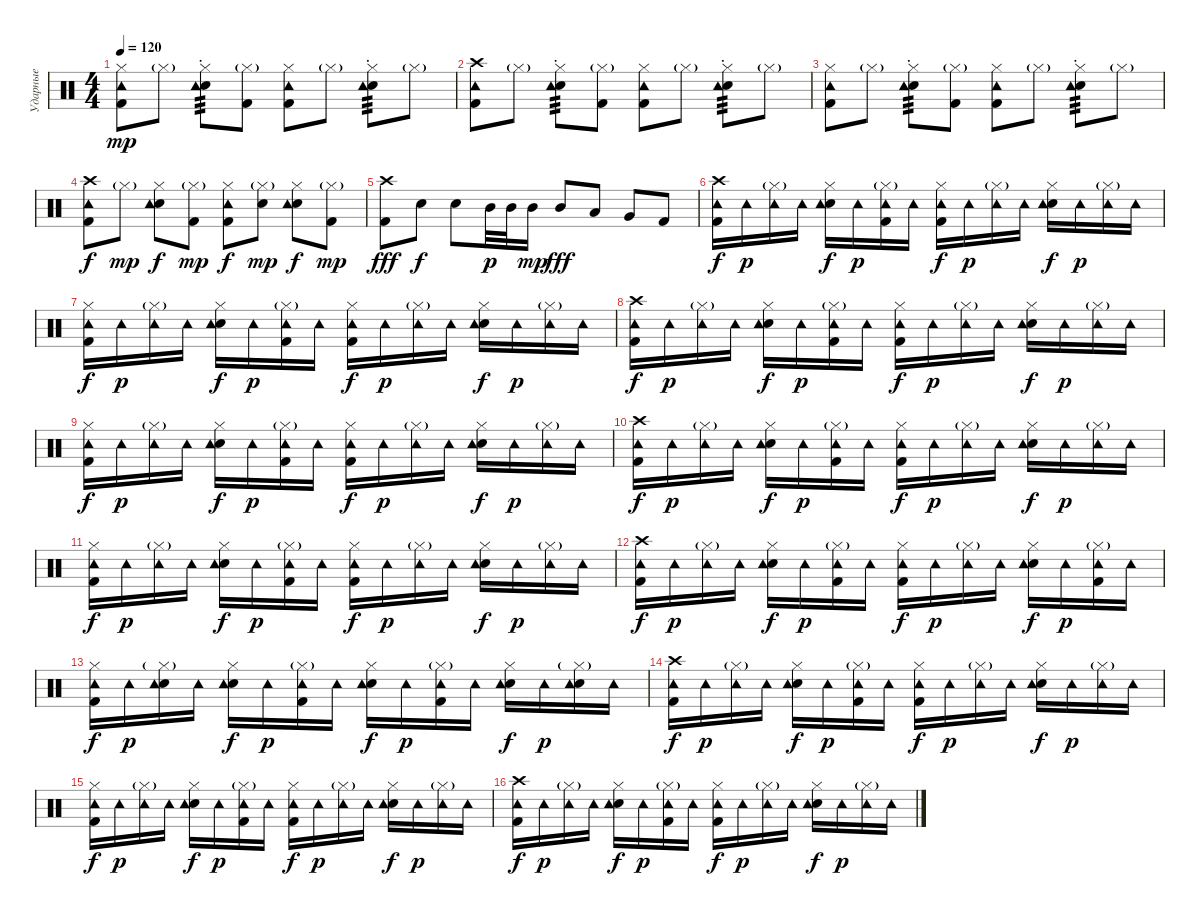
\track ("Ударные" "Ударные") {instrument percussion}
\staff {score}
\articulation defaults
\ts (4 4)
\tempo 120
\clef neutral
\ks c
("Kick (hit) 2" "Hi-Hat (closed)" "Tambourine (hit)").8{dy mp} "Hi-Hat (closed)"{g}.8 ("Electric Snare (hit)" "Hi-Hat (closed)" "Tambourine (hit)"{st}).8{tp 3} ("Kick (hit) 2" "Hi-Hat (closed)"{g}).8 ("Kick (hit) 2" "Hi-Hat (closed)" "Tambourine (hit)").8 "Hi-Hat (closed)"{g}.8 ("Electric Snare (hit)" "Hi-Hat (closed)" "Tambourine (hit)"{st}).8{tp 3} "Hi-Hat (closed)"{g}.8 |
("Kick (hit) 2" "Crash high (hit)" "Tambourine (hit)").8 "Hi-Hat (closed)"{g}.8 ("Electric Snare (hit)" "Hi-Hat (closed)" "Tambourine (hit)"{st}).8{tp 3} ("Kick (hit) 2" "Hi-Hat (closed)"{g}).8 ("Kick (hit) 2" "Hi-Hat (closed)" "Tambourine (hit)").8 "Hi-Hat (closed)"{g}.8 ("Electric Snare (hit)" "Hi-Hat (closed)" "Tambourine (hit)"{st}).8{tp 3} "Hi-Hat (closed)"{g}.8 |
("Kick (hit) 2" "Hi-Hat (closed)" "Tambourine (hit)").8 "Hi-Hat (closed)"{g}.8 ("Electric Snare (hit)" "Hi-Hat (closed)" "Tambourine (hit)"{st}).8{tp 3} ("Kick (hit) 2" "Hi-Hat (closed)"{g}).8 ("Kick (hit) 2" "Hi-Hat (closed)" "Tambourine (hit)").8 "Hi-Hat (closed)"{g}.8 ("Electric Snare (hit)" "Hi-Hat (closed)" "Tambourine (hit)"{st}).8{tp 3} "Hi-Hat (closed)"{g}.8 |
("Kick (hit) 2" "Crash high (hit)" "Tambourine (hit)").8{dy f} "Hi-Hat (closed)"{g}.8{dy mp} ("Electric Snare (hit)" "Hi-Hat (closed)" "Tambourine (hit)").8{dy f} ("Kick (hit) 2" "Hi-Hat (closed)"{g}).8{dy mp} ("Kick (hit) 2" "Hi-Hat (closed)" "Tambourine (hit)").8{dy f} ("Electric Snare (hit)" "Hi-Hat (closed)"{g}).8{dy mp} ("Electric Snare (hit)" "Hi-Hat (closed)" "Tambourine (hit)").8{dy f} ("Kick (hit) 2" "Hi-Hat (closed)"{g}).8{dy mp} |
("Kick (hit) 2" "Crash high (hit)").8{dy fff} "Electric Snare (hit)".8{dy f} "Electric Snare (hit)".8 "Mid Tom (hit)".32{dy p} "Mid Tom (hit)".32 "Mid Tom (hit)".16{dy mp} "Mid Tom (hit)".8{dy fff} "Low Tom (hit)".8 "Very Low Tom (hit)".8 "Kick (hit) 2".8 |
("Kick (hit) 2" "Crash high (hit)" "Tambourine (hit)").16{dy f} "Tambourine (hit)".16{dy p} ("Hi-Hat (closed)"{g} "Tambourine (hit)").16 "Tambourine (hit)".16 ("Electric Snare (hit)" "Hi-Hat (closed)" "Tambourine (hit)").16{dy f} "Tambourine (hit)".16{dy p} ("Kick (hit) 2" "Hi-Hat (closed)"{g} "Tambourine (hit)").16 "Tambourine (hit)".16 ("Kick (hit) 2" "Hi-Hat (closed)" "Tambourine (hit)").16{dy f} "Tambourine (hit)".16{dy p} ("Hi-Hat (closed)"{g} "Tambourine (hit)").16 "Tambourine (hit)".16 ("Electric Snare (hit)" "Hi-Hat (closed)" "Tambourine (hit)").16{dy f} "Tambourine (hit)".16{dy p} ("Hi-Hat (closed)"{g} "Tambourine (hit)").16 "Tambourine (hit)".16 |
("Kick (hit) 2" "Hi-Hat (closed)" "Tambourine (hit)").16{dy f} "Tambourine (hit)".16{dy p} ("Hi-Hat (closed)"{g} "Tambourine (hit)").16 "Tambourine (hit)".16 ("Electric Snare (hit)" "Hi-Hat (closed)" "Tambourine (hit)").16{dy f} "Tambourine (hit)".16{dy p} ("Kick (hit) 2" "Hi-Hat (closed)"{g} "Tambourine (hit)").16 "Tambourine (hit)".16 ("Kick (hit) 2" "Hi-Hat (closed)" "Tambourine (hit)").16{dy f} "Tambourine (hit)".16{dy p} ("Hi-Hat (closed)"{g} "Tambourine (hit)").16 "Tambourine (hit)".16 ("Electric Snare (hit)" "Hi-Hat (closed)" "Tambourine (hit)").16{dy f} "Tambourine (hit)".16{dy p} ("Hi-Hat (closed)"{g} "Tambourine (hit)").16 "Tambourine (hit)".16 |
("Kick (hit) 2" "Crash high (hit)" "Tambourine (hit)").16{dy f} "Tambourine (hit)".16{dy p} ("Hi-Hat (closed)"{g} "Tambourine (hit)").16 "Tambourine (hit)".16 ("Electric Snare (hit)" "Hi-Hat (closed)" "Tambourine (hit)").16{dy f} "Tambourine (hit)".16{dy p} ("Kick (hit) 2" "Hi-Hat (closed)"{g} "Tambourine (hit)").16 "Tambourine (hit)".16 ("Kick (hit) 2" "Hi-Hat (closed)" "Tambourine (hit)").16{dy f} "Tambourine (hit)".16{dy p} ("Hi-Hat (closed)"{g} "Tambourine (hit)").16 "Tambourine (hit)".16 ("Electric Snare (hit)" "Hi-Hat (closed)" "Tambourine (hit)").16{dy f} "Tambourine (hit)".16{dy p} ("Hi-Hat (closed)"{g} "Tambourine (hit)").16 "Tambourine (hit)".16 |
("Kick (hit) 2" "Hi-Hat (closed)" "Tambourine (hit)").16{dy f} "Tambourine (hit)".16{dy p} ("Hi-Hat (closed)"{g} "Tambourine (hit)").16 "Tambourine (hit)".16 ("Electric Snare (hit)" "Hi-Hat (closed)" "Tambourine (hit)").16{dy f} "Tambourine (hit)".16{dy p} ("Kick (hit) 2" "Hi-Hat (closed)"{g} "Tambourine (hit)").16 "Tambourine (hit)".16 ("Kick (hit) 2" "Hi-Hat (closed)" "Tambourine (hit)").16{dy f} "Tambourine (hit)".16{dy p} ("Hi-Hat (closed)"{g} "Tambourine (hit)").16 "Tambourine (hit)".16 ("Electric Snare (hit)" "Hi-Hat (closed)" "Tambourine (hit)").16{dy f} "Tambourine (hit)".16{dy p} ("Hi-Hat (closed)"{g} "Tambourine (hit)").16 "Tambourine (hit)".16 |
("Kick (hit) 2" "Crash high (hit)" "Tambourine (hit)").16{dy f} "Tambourine (hit)".16{dy p} ("Hi-Hat (closed)"{g} "Tambourine (hit)").16 "Tambourine (hit)".16 ("Electric Snare (hit)" "Hi-Hat (closed)" "Tambourine (hit)").16{dy f} "Tambourine (hit)".16{dy p} ("Kick (hit) 2" "Hi-Hat (closed)"{g} "Tambourine (hit)").16 "Tambourine (hit)".16 ("Kick (hit) 2" "Hi-Hat (closed)" "Tambourine (hit)").16{dy f} "Tambourine (hit)".16{dy p} ("Hi-Hat (closed)"{g} "Tambourine (hit)").16 "Tambourine (hit)".16 ("Electric Snare (hit)" "Hi-Hat (closed)" "Tambourine (hit)").16{dy f} "Tambourine (hit)".16{dy p} ("Hi-Hat (closed)"{g} "Tambourine (hit)").16 "Tambourine (hit)".16 |
("Kick (hit) 2" "Hi-Hat (closed)" "Tambourine (hit)").16{dy f} "Tambourine (hit)".16{dy p} ("Hi-Hat (closed)"{g} "Tambourine (hit)").16 "Tambourine (hit)".16 ("Electric Snare (hit)" "Hi-Hat (closed)" "Tambourine (hit)").16{dy f} "Tambourine (hit)".16{dy p} ("Kick (hit) 2" "Hi-Hat (closed)"{g} "Tambourine (hit)").16 "Tambourine (hit)".16 ("Kick (hit) 2" "Hi-Hat (closed)" "Tambourine (hit)").16{dy f} "Tambourine (hit)".16{dy p} ("Hi-Hat (closed)"{g} "Tambourine (hit)").16 "Tambourine (hit)".16 ("Electric Snare (hit)" "Hi-Hat (closed)" "Tambourine (hit)").16{dy f} "Tambourine (hit)".16{dy p} ("Hi-Hat (closed)"{g} "Tambourine (hit)").16 "Tambourine (hit)".16 |
("Kick (hit) 2" "Crash high (hit)" "Tambourine (hit)").16{dy f} "Tambourine (hit)".16{dy p} ("Hi-Hat (closed)"{g} "Tambourine (hit)").16 "Tambourine (hit)".16 ("Electric Snare (hit)" "Hi-Hat (closed)" "Tambourine (hit)").16{dy f} "Tambourine (hit)".16{dy p} ("Kick (hit) 2" "Hi-Hat (closed)"{g} "Tambourine (hit)").16 "Tambourine (hit)".16 ("Kick (hit) 2" "Hi-Hat (closed)" "Tambourine (hit)").16{dy f} "Tambourine (hit)".16{dy p} ("Hi-Hat (closed)"{g} "Tambourine (hit)").16 "Tambourine (hit)".16 ("Electric Snare (hit)" "Hi-Hat (closed)" "Tambourine (hit)").16{dy f} "Tambourine (hit)".16{dy p} ("Kick (hit) 2" "Hi-Hat (closed)"{g} "Tambourine (hit)").16 "Tambourine (hit)".16 |
("Kick (hit) 2" "Hi-Hat (closed)" "Tambourine (hit)").16{dy f} "Tambourine (hit)".16{dy p} ("Electric Snare (hit)" "Hi-Hat (closed)"{g} "Tambourine (hit)").16 "Tambourine (hit)".16 ("Electric Snare (hit)" "Hi-Hat (closed)" "Tambourine (hit)").16{dy f} "Tambourine (hit)".16{dy p} ("Kick (hit) 2" "Hi-Hat (closed)"{g} "Tambourine (hit)").16 "Tambourine (hit)".16 ("Electric Snare (hit)" "Hi-Hat (closed)" "Tambourine (hit)").16{dy f} "Tambourine (hit)".16{dy p} ("Kick (hit) 2" "Hi-Hat (closed)"{g} "Tambourine (hit)").16 "Tambourine (hit)".16 ("Electric Snare (hit)" "Hi-Hat (closed)" "Tambourine (hit)").16{dy f} "Tambourine (hit)".16{dy p} ("Electric Snare (hit)" "Hi-Hat (closed)"{g} "Tambourine (hit)").16 "Tambourine (hit)".16 |
("Kick (hit) 2" "Crash high (hit)" "Tambourine (hit)").16{dy f} "Tambourine (hit)".16{dy p} ("Hi-Hat (closed)"{g} "Tambourine (hit)").16 "Tambourine (hit)".16 ("Electric Snare (hit)" "Hi-Hat (closed)" "Tambourine (hit)").16{dy f} "Tambourine (hit)".16{dy p} ("Kick (hit) 2" "Hi-Hat (closed)"{g} "Tambourine (hit)").16 "Tambourine (hit)".16 ("Kick (hit) 2" "Hi-Hat (closed)" "Tambourine (hit)").16{dy f} "Tambourine (hit)".16{dy p} ("Hi-Hat (closed)"{g} "Tambourine (hit)").16 "Tambourine (hit)".16 ("Electric Snare (hit)" "Hi-Hat (closed)" "Tambourine (hit)").16{dy f} "Tambourine (hit)".16{dy p} ("Hi-Hat (closed)"{g} "Tambourine (hit)").16 "Tambourine (hit)".16 |
("Kick (hit) 2" "Hi-Hat (closed)" "Tambourine (hit)").16{dy f} "Tambourine (hit)".16{dy p} ("Hi-Hat (closed)"{g} "Tambourine (hit)").16 "Tambourine (hit)".16 ("Electric Snare (hit)" "Hi-Hat (closed)" "Tambourine (hit)").16{dy f} "Tambourine (hit)".16{dy p} ("Kick (hit) 2" "Hi-Hat (closed)"{g} "Tambourine (hit)").16 "Tambourine (hit)".16 ("Kick (hit) 2" "Hi-Hat (closed)" "Tambourine (hit)").16{dy f} "Tambourine (hit)".16{dy p} ("Hi-Hat (closed)"{g} "Tambourine (hit)").16 "Tambourine (hit)".16 ("Electric Snare (hit)" "Hi-Hat (closed)" "Tambourine (hit)").16{dy f} "Tambourine (hit)".16{dy p} ("Hi-Hat (closed)"{g} "Tambourine (hit)").16 "Tambourine (hit)".16 |
("Kick (hit) 2" "Crash high (hit)" "Tambourine (hit)").16{dy f} "Tambourine (hit)".16{dy p} ("Hi-Hat (closed)"{g} "Tambourine (hit)").16 "Tambourine (hit)".16 ("Electric Snare (hit)" "Hi-Hat (closed)" "Tambourine (hit)").16{dy f} "Tambourine (hit)".16{dy p} ("Kick (hit) 2" "Hi-Hat (closed)"{g} "Tambourine (hit)").16 "Tambourine (hit)".16 ("Kick (hit) 2" "Hi-Hat (closed)" "Tambourine (hit)").16{dy f} "Tambourine (hit)".16{dy p} ("Hi-Hat (closed)"{g} "Tambourine (hit)").16 "Tambourine (hit)".16 ("Electric Snare (hit)" "Hi-Hat (closed)" "Tambourine (hit)").16{dy f} "Tambourine (hit)".16{dy p} ("Hi-Hat (closed)"{g} "Tambourine (hit)").16 "Tambourine (hit)".16
